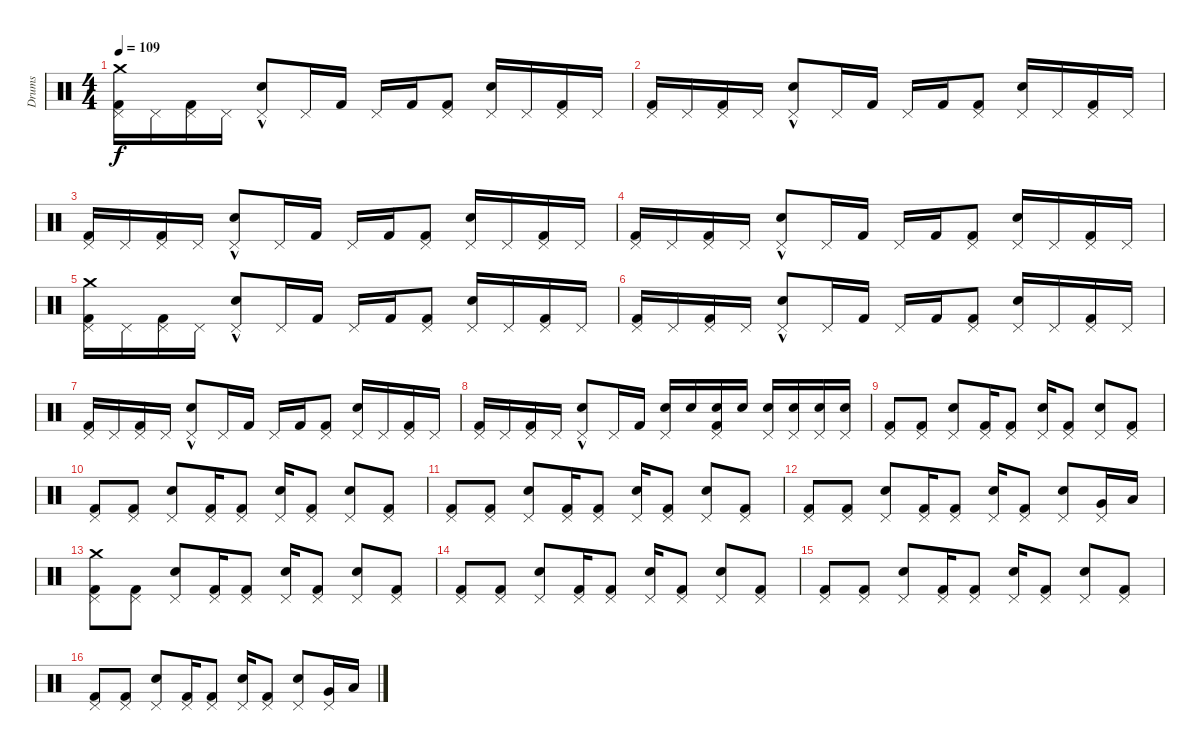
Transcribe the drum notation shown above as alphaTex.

\track ("Drums" "Drums") {instrument percussion}
\staff {score}
\articulation defaults
\ts (4 4)
\tempo 109
\clef neutral
\ks c
("Crash medium (hit)" "Kick (hit) 2" "Pedal Hi-Hat (hit)").16{dy f} "Pedal Hi-Hat (hit)".16 ("Kick (hit) 2" "Pedal Hi-Hat (hit)").16 "Pedal Hi-Hat (hit)".16 ("Snare (hit) 2"{hac} "Pedal Hi-Hat (hit)").8 "Pedal Hi-Hat (hit)".16 "Kick (hit) 2".16 "Pedal Hi-Hat (hit)".16 "Kick (hit) 2".16 ("Kick (hit) 2" "Pedal Hi-Hat (hit)").8 ("Snare (hit) 2" "Pedal Hi-Hat (hit)").16 "Pedal Hi-Hat (hit)".16 ("Kick (hit) 2" "Pedal Hi-Hat (hit)").16 "Pedal Hi-Hat (hit)".16 |
("Kick (hit) 2" "Pedal Hi-Hat (hit)").16 "Pedal Hi-Hat (hit)".16 ("Kick (hit) 2" "Pedal Hi-Hat (hit)").16 "Pedal Hi-Hat (hit)".16 ("Snare (hit) 2"{hac} "Pedal Hi-Hat (hit)").8 "Pedal Hi-Hat (hit)".16 "Kick (hit) 2".16 "Pedal Hi-Hat (hit)".16 "Kick (hit) 2".16 ("Kick (hit) 2" "Pedal Hi-Hat (hit)").8 ("Snare (hit) 2" "Pedal Hi-Hat (hit)").16 "Pedal Hi-Hat (hit)".16 ("Kick (hit) 2" "Pedal Hi-Hat (hit)").16 "Pedal Hi-Hat (hit)".16 |
("Kick (hit) 2" "Pedal Hi-Hat (hit)").16 "Pedal Hi-Hat (hit)".16 ("Kick (hit) 2" "Pedal Hi-Hat (hit)").16 "Pedal Hi-Hat (hit)".16 ("Snare (hit) 2"{hac} "Pedal Hi-Hat (hit)").8 "Pedal Hi-Hat (hit)".16 "Kick (hit) 2".16 "Pedal Hi-Hat (hit)".16 "Kick (hit) 2".16 ("Kick (hit) 2" "Pedal Hi-Hat (hit)").8 ("Snare (hit) 2" "Pedal Hi-Hat (hit)").16 "Pedal Hi-Hat (hit)".16 ("Kick (hit) 2" "Pedal Hi-Hat (hit)").16 "Pedal Hi-Hat (hit)".16 |
("Kick (hit) 2" "Pedal Hi-Hat (hit)").16 "Pedal Hi-Hat (hit)".16 ("Kick (hit) 2" "Pedal Hi-Hat (hit)").16 "Pedal Hi-Hat (hit)".16 ("Snare (hit) 2"{hac} "Pedal Hi-Hat (hit)").8 "Pedal Hi-Hat (hit)".16 "Kick (hit) 2".16 "Pedal Hi-Hat (hit)".16 "Kick (hit) 2".16 ("Kick (hit) 2" "Pedal Hi-Hat (hit)").8 ("Snare (hit) 2" "Pedal Hi-Hat (hit)").16 "Pedal Hi-Hat (hit)".16 ("Kick (hit) 2" "Pedal Hi-Hat (hit)").16 "Pedal Hi-Hat (hit)".16 |
("Crash medium (hit)" "Kick (hit) 2" "Pedal Hi-Hat (hit)").16 "Pedal Hi-Hat (hit)".16 ("Kick (hit) 2" "Pedal Hi-Hat (hit)").16 "Pedal Hi-Hat (hit)".16 ("Snare (hit) 2"{hac} "Pedal Hi-Hat (hit)").8 "Pedal Hi-Hat (hit)".16 "Kick (hit) 2".16 "Pedal Hi-Hat (hit)".16 "Kick (hit) 2".16 ("Kick (hit) 2" "Pedal Hi-Hat (hit)").8 ("Snare (hit) 2" "Pedal Hi-Hat (hit)").16 "Pedal Hi-Hat (hit)".16 ("Kick (hit) 2" "Pedal Hi-Hat (hit)").16 "Pedal Hi-Hat (hit)".16 |
("Kick (hit) 2" "Pedal Hi-Hat (hit)").16 "Pedal Hi-Hat (hit)".16 ("Kick (hit) 2" "Pedal Hi-Hat (hit)").16 "Pedal Hi-Hat (hit)".16 ("Snare (hit) 2"{hac} "Pedal Hi-Hat (hit)").8 "Pedal Hi-Hat (hit)".16 "Kick (hit) 2".16 "Pedal Hi-Hat (hit)".16 "Kick (hit) 2".16 ("Kick (hit) 2" "Pedal Hi-Hat (hit)").8 ("Snare (hit) 2" "Pedal Hi-Hat (hit)").16 "Pedal Hi-Hat (hit)".16 ("Kick (hit) 2" "Pedal Hi-Hat (hit)").16 "Pedal Hi-Hat (hit)".16 |
("Kick (hit) 2" "Pedal Hi-Hat (hit)").16 "Pedal Hi-Hat (hit)".16 ("Kick (hit) 2" "Pedal Hi-Hat (hit)").16 "Pedal Hi-Hat (hit)".16 ("Snare (hit) 2"{hac} "Pedal Hi-Hat (hit)").8 "Pedal Hi-Hat (hit)".16 "Kick (hit) 2".16 "Pedal Hi-Hat (hit)".16 "Kick (hit) 2".16 ("Kick (hit) 2" "Pedal Hi-Hat (hit)").8 ("Snare (hit) 2" "Pedal Hi-Hat (hit)").16 "Pedal Hi-Hat (hit)".16 ("Kick (hit) 2" "Pedal Hi-Hat (hit)").16 "Pedal Hi-Hat (hit)".16 |
("Kick (hit) 2" "Pedal Hi-Hat (hit)").16 "Pedal Hi-Hat (hit)".16 ("Kick (hit) 2" "Pedal Hi-Hat (hit)").16 "Pedal Hi-Hat (hit)".16 ("Snare (hit) 2"{hac} "Pedal Hi-Hat (hit)").8 "Pedal Hi-Hat (hit)".16 "Kick (hit) 2".16 ("Snare (hit) 2" "Pedal Hi-Hat (hit)").16 "Snare (hit) 2".16 ("Snare (hit) 2" "Kick (hit) 2" "Pedal Hi-Hat (hit)").16 "Snare (hit) 2".16 ("Snare (hit) 2" "Pedal Hi-Hat (hit)").16 ("Snare (hit) 2" "Pedal Hi-Hat (hit)").16 ("Snare (hit) 2" "Pedal Hi-Hat (hit)").16 ("Snare (hit) 2" "Pedal Hi-Hat (hit)").16 |
("Pedal Hi-Hat (hit)" "Kick (hit) 2").8 ("Pedal Hi-Hat (hit)" "Kick (hit) 2").8 ("Pedal Hi-Hat (hit)" "Snare (hit) 2").8 ("Pedal Hi-Hat (hit)" "Kick (hit) 2").16 ("Pedal Hi-Hat (hit)" "Kick (hit) 2").8 ("Pedal Hi-Hat (hit)" "Snare (hit) 2").16 ("Pedal Hi-Hat (hit)" "Kick (hit) 2").8 ("Pedal Hi-Hat (hit)" "Snare (hit) 2").8 ("Pedal Hi-Hat (hit)" "Kick (hit) 2").8 |
("Pedal Hi-Hat (hit)" "Kick (hit) 2").8 ("Pedal Hi-Hat (hit)" "Kick (hit) 2").8 ("Pedal Hi-Hat (hit)" "Snare (hit) 2").8 ("Pedal Hi-Hat (hit)" "Kick (hit) 2").16 ("Pedal Hi-Hat (hit)" "Kick (hit) 2").8 ("Pedal Hi-Hat (hit)" "Snare (hit) 2").16 ("Pedal Hi-Hat (hit)" "Kick (hit) 2").8 ("Pedal Hi-Hat (hit)" "Snare (hit) 2").8 ("Pedal Hi-Hat (hit)" "Kick (hit) 2").8 |
("Pedal Hi-Hat (hit)" "Kick (hit) 2").8 ("Pedal Hi-Hat (hit)" "Kick (hit) 2").8 ("Pedal Hi-Hat (hit)" "Snare (hit) 2").8 ("Pedal Hi-Hat (hit)" "Kick (hit) 2").16 ("Pedal Hi-Hat (hit)" "Kick (hit) 2").8 ("Pedal Hi-Hat (hit)" "Snare (hit) 2").16 ("Pedal Hi-Hat (hit)" "Kick (hit) 2").8 ("Pedal Hi-Hat (hit)" "Snare (hit) 2").8 ("Pedal Hi-Hat (hit)" "Kick (hit) 2").8 |
("Pedal Hi-Hat (hit)" "Kick (hit) 2").8 ("Pedal Hi-Hat (hit)" "Kick (hit) 2").8 ("Pedal Hi-Hat (hit)" "Snare (hit) 2").8 ("Pedal Hi-Hat (hit)" "Kick (hit) 2").16 ("Pedal Hi-Hat (hit)" "Kick (hit) 2").8 ("Pedal Hi-Hat (hit)" "Snare (hit) 2").16 ("Pedal Hi-Hat (hit)" "Kick (hit) 2").8 ("Pedal Hi-Hat (hit)" "Snare (hit) 2").8 ("Very Low Tom (hit)" "Pedal Hi-Hat (hit)").16 "Low Floor Tom (hit)".16 |
("Crash medium (hit)" "Pedal Hi-Hat (hit)" "Kick (hit) 2").8 ("Pedal Hi-Hat (hit)" "Kick (hit) 2").8 ("Pedal Hi-Hat (hit)" "Snare (hit) 2").8 ("Pedal Hi-Hat (hit)" "Kick (hit) 2").16 ("Pedal Hi-Hat (hit)" "Kick (hit) 2").8 ("Pedal Hi-Hat (hit)" "Snare (hit) 2").16 ("Pedal Hi-Hat (hit)" "Kick (hit) 2").8 ("Pedal Hi-Hat (hit)" "Snare (hit) 2").8 ("Pedal Hi-Hat (hit)" "Kick (hit) 2").8 |
("Pedal Hi-Hat (hit)" "Kick (hit) 2").8 ("Pedal Hi-Hat (hit)" "Kick (hit) 2").8 ("Pedal Hi-Hat (hit)" "Snare (hit) 2").8 ("Pedal Hi-Hat (hit)" "Kick (hit) 2").16 ("Pedal Hi-Hat (hit)" "Kick (hit) 2").8 ("Pedal Hi-Hat (hit)" "Snare (hit) 2").16 ("Pedal Hi-Hat (hit)" "Kick (hit) 2").8 ("Pedal Hi-Hat (hit)" "Snare (hit) 2").8 ("Pedal Hi-Hat (hit)" "Kick (hit) 2").8 |
("Pedal Hi-Hat (hit)" "Kick (hit) 2").8 ("Pedal Hi-Hat (hit)" "Kick (hit) 2").8 ("Pedal Hi-Hat (hit)" "Snare (hit) 2").8 ("Pedal Hi-Hat (hit)" "Kick (hit) 2").16 ("Pedal Hi-Hat (hit)" "Kick (hit) 2").8 ("Pedal Hi-Hat (hit)" "Snare (hit) 2").16 ("Pedal Hi-Hat (hit)" "Kick (hit) 2").8 ("Pedal Hi-Hat (hit)" "Snare (hit) 2").8 ("Pedal Hi-Hat (hit)" "Kick (hit) 2").8 |
("Pedal Hi-Hat (hit)" "Kick (hit) 2").8 ("Pedal Hi-Hat (hit)" "Kick (hit) 2").8 ("Pedal Hi-Hat (hit)" "Snare (hit) 2").8 ("Pedal Hi-Hat (hit)" "Kick (hit) 2").16 ("Pedal Hi-Hat (hit)" "Kick (hit) 2").8 ("Pedal Hi-Hat (hit)" "Snare (hit) 2").16 ("Pedal Hi-Hat (hit)" "Kick (hit) 2").8 ("Pedal Hi-Hat (hit)" "Snare (hit) 2").8 ("Very Low Tom (hit)" "Pedal Hi-Hat (hit)").16 "Low Floor Tom (hit)".16
